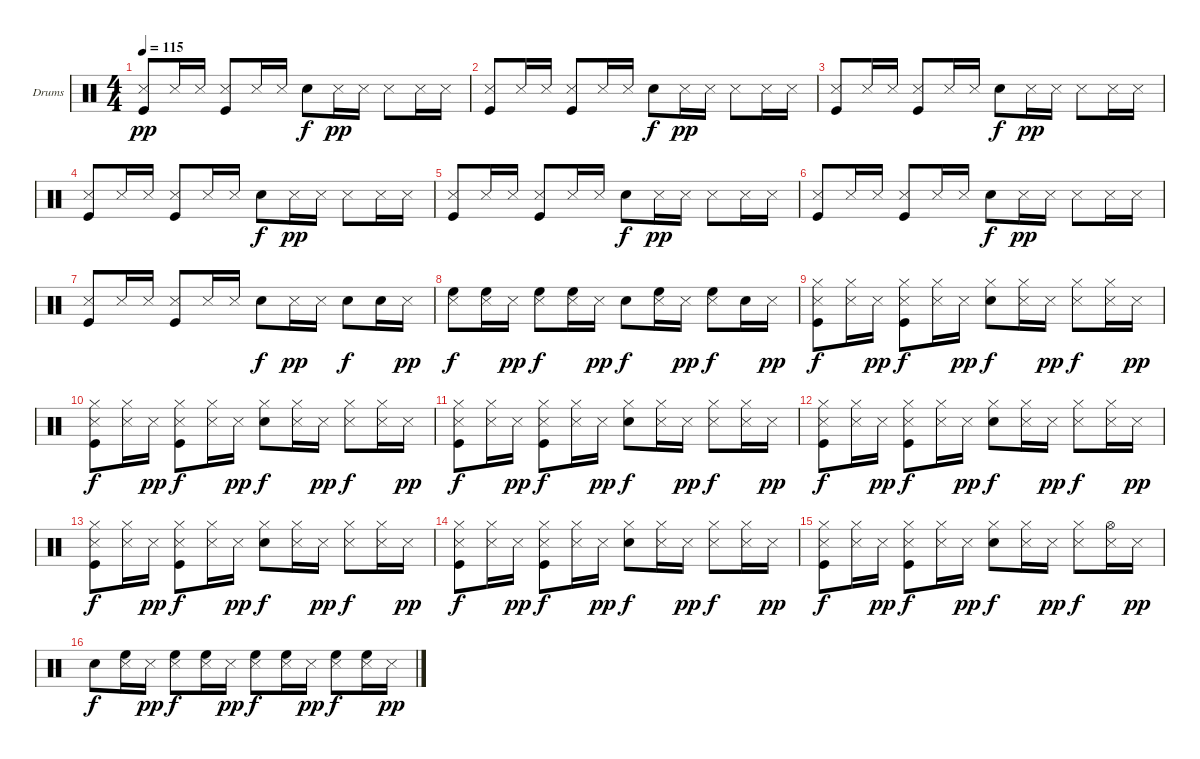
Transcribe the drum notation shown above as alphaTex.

\bracketExtendMode groupsimilarinstruments
\firstSystemTrackNameOrientation horizontal
\otherSystemsTrackNameOrientation horizontal
\track ("Drumkit" "Drums") {instrument percussion}
\staff {score}
\articulation defaults
\ts (4 4)
\tempo 115
\clef neutral
\ks c
("Snare (side stick) 3" "Kick (hit)").8{dy pp} "Snare (side stick) 3".16 "Snare (side stick) 3".16 ("Snare (side stick) 3" "Kick (hit)").8 "Snare (side stick) 3".16 "Snare (side stick) 3".16 "Snare (hit) 2".8{dy f} "Snare (side stick) 3".16{dy pp} "Snare (side stick) 3".16 "Snare (side stick) 3".8 "Snare (side stick) 3".16 "Snare (side stick) 3".16 |
("Snare (side stick) 3" "Kick (hit)").8 "Snare (side stick) 3".16 "Snare (side stick) 3".16 ("Snare (side stick) 3" "Kick (hit)").8 "Snare (side stick) 3".16 "Snare (side stick) 3".16 "Snare (hit) 2".8{dy f} "Snare (side stick) 3".16{dy pp} "Snare (side stick) 3".16 "Snare (side stick) 3".8 "Snare (side stick) 3".16 "Snare (side stick) 3".16 |
("Snare (side stick) 3" "Kick (hit)").8 "Snare (side stick) 3".16 "Snare (side stick) 3".16 ("Snare (side stick) 3" "Kick (hit)").8 "Snare (side stick) 3".16 "Snare (side stick) 3".16 "Snare (hit) 2".8{dy f} "Snare (side stick) 3".16{dy pp} "Snare (side stick) 3".16 "Snare (side stick) 3".8 "Snare (side stick) 3".16 "Snare (side stick) 3".16 |
("Snare (side stick) 3" "Kick (hit)").8 "Snare (side stick) 3".16 "Snare (side stick) 3".16 ("Snare (side stick) 3" "Kick (hit)").8 "Snare (side stick) 3".16 "Snare (side stick) 3".16 "Snare (hit) 2".8{dy f} "Snare (side stick) 3".16{dy pp} "Snare (side stick) 3".16 "Snare (side stick) 3".8 "Snare (side stick) 3".16 "Snare (side stick) 3".16 |
("Snare (side stick) 3" "Kick (hit)").8 "Snare (side stick) 3".16 "Snare (side stick) 3".16 ("Snare (side stick) 3" "Kick (hit)").8 "Snare (side stick) 3".16 "Snare (side stick) 3".16 "Snare (hit) 2".8{dy f} "Snare (side stick) 3".16{dy pp} "Snare (side stick) 3".16 "Snare (side stick) 3".8 "Snare (side stick) 3".16 "Snare (side stick) 3".16 |
("Snare (side stick) 3" "Kick (hit)").8 "Snare (side stick) 3".16 "Snare (side stick) 3".16 ("Snare (side stick) 3" "Kick (hit)").8 "Snare (side stick) 3".16 "Snare (side stick) 3".16 "Snare (hit) 2".8{dy f} "Snare (side stick) 3".16{dy pp} "Snare (side stick) 3".16 "Snare (side stick) 3".8 "Snare (side stick) 3".16 "Snare (side stick) 3".16 |
("Snare (side stick) 3" "Kick (hit)").8 "Snare (side stick) 3".16 "Snare (side stick) 3".16 ("Snare (side stick) 3" "Kick (hit)").8 "Snare (side stick) 3".16 "Snare (side stick) 3".16 "Snare (hit) 2".8{dy f} "Snare (side stick) 3".16{dy pp} "Snare (side stick) 3".16 "Snare (hit) 2".8{dy f} "Snare (hit) 2".16 "Snare (side stick) 3".16{dy pp} |
("High Floor Tom (hit)" "Snare (side stick) 3").8{dy f} ("High Floor Tom (hit)" "Snare (side stick) 3").16 "Snare (side stick) 3".16{dy pp} ("High Floor Tom (hit)" "Snare (side stick) 3").8{dy f} ("High Floor Tom (hit)" "Snare (side stick) 3").16 "Snare (side stick) 3".16{dy pp} "Snare (hit) 2".8{dy f} ("High Floor Tom (hit)" "Snare (side stick) 3").16 "Snare (side stick) 3".16{dy pp} ("High Floor Tom (hit)" "Snare (side stick) 3").8{dy f} "Snare (hit) 2".16 "Snare (side stick) 3".16{dy pp} |
("Hi-Hat (closed)" "Snare (side stick) 3" "Kick (hit)").8{dy f} ("Hi-Hat (closed)" "Snare (side stick) 3").16 "Snare (side stick) 3".16{dy pp} ("Hi-Hat (closed)" "Snare (side stick) 3" "Kick (hit)").8{dy f} ("Hi-Hat (closed)" "Snare (side stick) 3").16 "Snare (side stick) 3".16{dy pp} ("Hi-Hat (closed)" "Snare (hit) 2").8{dy f} ("Hi-Hat (closed)" "Snare (side stick) 3").16 "Snare (side stick) 3".16{dy pp} ("Hi-Hat (closed)" "Snare (side stick) 3").8{dy f} ("Hi-Hat (closed)" "Snare (side stick) 3").16 "Snare (side stick) 3".16{dy pp} |
("Hi-Hat (closed)" "Snare (side stick) 3" "Kick (hit)").8{dy f} ("Hi-Hat (closed)" "Snare (side stick) 3").16 "Snare (side stick) 3".16{dy pp} ("Hi-Hat (closed)" "Snare (side stick) 3" "Kick (hit)").8{dy f} ("Hi-Hat (closed)" "Snare (side stick) 3").16 "Snare (side stick) 3".16{dy pp} ("Hi-Hat (closed)" "Snare (hit) 2").8{dy f} ("Hi-Hat (closed)" "Snare (side stick) 3").16 "Snare (side stick) 3".16{dy pp} ("Hi-Hat (closed)" "Snare (side stick) 3").8{dy f} ("Hi-Hat (closed)" "Snare (side stick) 3").16 "Snare (side stick) 3".16{dy pp} |
("Hi-Hat (closed)" "Snare (side stick) 3" "Kick (hit)").8{dy f} ("Hi-Hat (closed)" "Snare (side stick) 3").16 "Snare (side stick) 3".16{dy pp} ("Hi-Hat (closed)" "Snare (side stick) 3" "Kick (hit)").8{dy f} ("Hi-Hat (closed)" "Snare (side stick) 3").16 "Snare (side stick) 3".16{dy pp} ("Hi-Hat (closed)" "Snare (hit) 2").8{dy f} ("Hi-Hat (closed)" "Snare (side stick) 3").16 "Snare (side stick) 3".16{dy pp} ("Hi-Hat (closed)" "Snare (side stick) 3").8{dy f} ("Hi-Hat (closed)" "Snare (side stick) 3").16 "Snare (side stick) 3".16{dy pp} |
("Hi-Hat (closed)" "Snare (side stick) 3" "Kick (hit)").8{dy f} ("Hi-Hat (closed)" "Snare (side stick) 3").16 "Snare (side stick) 3".16{dy pp} ("Hi-Hat (closed)" "Snare (side stick) 3" "Kick (hit)").8{dy f} ("Hi-Hat (closed)" "Snare (side stick) 3").16 "Snare (side stick) 3".16{dy pp} ("Hi-Hat (closed)" "Snare (hit) 2").8{dy f} ("Hi-Hat (closed)" "Snare (side stick) 3").16 "Snare (side stick) 3".16{dy pp} ("Hi-Hat (closed)" "Snare (side stick) 3").8{dy f} ("Hi-Hat (closed)" "Snare (side stick) 3").16 "Snare (side stick) 3".16{dy pp} |
("Hi-Hat (closed)" "Snare (side stick) 3" "Kick (hit)").8{dy f} ("Hi-Hat (closed)" "Snare (side stick) 3").16 "Snare (side stick) 3".16{dy pp} ("Hi-Hat (closed)" "Snare (side stick) 3" "Kick (hit)").8{dy f} ("Hi-Hat (closed)" "Snare (side stick) 3").16 "Snare (side stick) 3".16{dy pp} ("Hi-Hat (closed)" "Snare (hit) 2").8{dy f} ("Hi-Hat (closed)" "Snare (side stick) 3").16 "Snare (side stick) 3".16{dy pp} ("Hi-Hat (closed)" "Snare (side stick) 3").8{dy f} ("Hi-Hat (closed)" "Snare (side stick) 3").16 "Snare (side stick) 3".16{dy pp} |
("Hi-Hat (closed)" "Snare (side stick) 3" "Kick (hit)").8{dy f} ("Hi-Hat (closed)" "Snare (side stick) 3").16 "Snare (side stick) 3".16{dy pp} ("Hi-Hat (closed)" "Snare (side stick) 3" "Kick (hit)").8{dy f} ("Hi-Hat (closed)" "Snare (side stick) 3").16 "Snare (side stick) 3".16{dy pp} ("Hi-Hat (closed)" "Snare (hit) 2").8{dy f} ("Hi-Hat (closed)" "Snare (side stick) 3").16 "Snare (side stick) 3".16{dy pp} ("Hi-Hat (closed)" "Snare (side stick) 3").8{dy f} ("Hi-Hat (closed)" "Snare (side stick) 3").16 "Snare (side stick) 3".16{dy pp} |
("Hi-Hat (closed)" "Snare (side stick) 3" "Kick (hit)").8{dy f} ("Hi-Hat (closed)" "Snare (side stick) 3").16 "Snare (side stick) 3".16{dy pp} ("Hi-Hat (closed)" "Snare (side stick) 3" "Kick (hit)").8{dy f} ("Hi-Hat (closed)" "Snare (side stick) 3").16 "Snare (side stick) 3".16{dy pp} ("Hi-Hat (closed)" "Snare (hit) 2").8{dy f} ("Hi-Hat (closed)" "Snare (side stick) 3").16 "Snare (side stick) 3".16{dy pp} ("Hi-Hat (closed)" "Snare (side stick) 3").8{dy f} ("Hi-Hat (open)" "Snare (side stick) 3").16 "Snare (side stick) 3".16{dy pp} |
"Snare (hit) 2".8{dy f} ("High Floor Tom (hit)" "Snare (side stick) 3").16 "Snare (side stick) 3".16{dy pp} ("High Floor Tom (hit)" "Snare (side stick) 3").8{dy f} ("High Floor Tom (hit)" "Snare (side stick) 3").16 "Snare (side stick) 3".16{dy pp} ("High Floor Tom (hit)" "Snare (side stick) 3").8{dy f} ("High Floor Tom (hit)" "Snare (side stick) 3").16 "Snare (side stick) 3".16{dy pp} ("High Floor Tom (hit)" "Snare (side stick) 3").8{dy f} ("High Floor Tom (hit)" "Snare (side stick) 3").16 "Snare (side stick) 3".16{dy pp}
